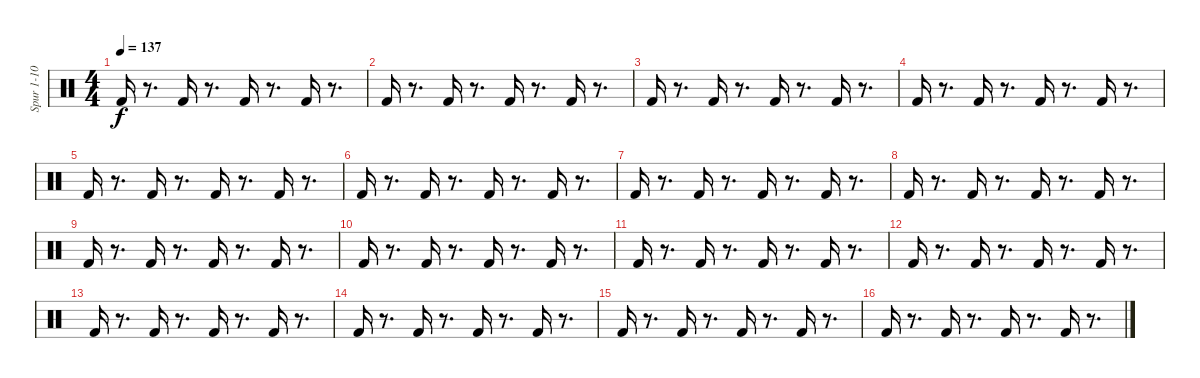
\track ("Spur 1-10" "Spur 1-10") {instrument percussion}
\staff {score}
\articulation defaults
\ts (4 4)
\tempo 137
\clef neutral
\ks c "Kick (hit) 2".16{dy f}
r.8{d} "Kick (hit) 2".16 r.8{d} "Kick (hit) 2".16 r.8{d} "Kick (hit) 2".16 r.8{d} |
"Kick (hit) 2".16 r.8{d} "Kick (hit) 2".16 r.8{d} "Kick (hit) 2".16 r.8{d} "Kick (hit) 2".16 r.8{d} |
"Kick (hit) 2".16 r.8{d} "Kick (hit) 2".16 r.8{d} "Kick (hit) 2".16 r.8{d} "Kick (hit) 2".16 r.8{d} |
"Kick (hit) 2".16 r.8{d} "Kick (hit) 2".16 r.8{d} "Kick (hit) 2".16 r.8{d} "Kick (hit) 2".16 r.8{d} |
"Kick (hit) 2".16 r.8{d} "Kick (hit) 2".16 r.8{d} "Kick (hit) 2".16 r.8{d} "Kick (hit) 2".16 r.8{d} |
"Kick (hit) 2".16 r.8{d} "Kick (hit) 2".16 r.8{d} "Kick (hit) 2".16 r.8{d} "Kick (hit) 2".16 r.8{d} |
"Kick (hit) 2".16 r.8{d} "Kick (hit) 2".16 r.8{d} "Kick (hit) 2".16 r.8{d} "Kick (hit) 2".16 r.8{d} |
"Kick (hit) 2".16 r.8{d} "Kick (hit) 2".16 r.8{d} "Kick (hit) 2".16 r.8{d} "Kick (hit) 2".16 r.8{d} |
"Kick (hit) 2".16 r.8{d} "Kick (hit) 2".16 r.8{d} "Kick (hit) 2".16 r.8{d} "Kick (hit) 2".16 r.8{d} |
"Kick (hit) 2".16 r.8{d} "Kick (hit) 2".16 r.8{d} "Kick (hit) 2".16 r.8{d} "Kick (hit) 2".16 r.8{d} |
"Kick (hit) 2".16 r.8{d} "Kick (hit) 2".16 r.8{d} "Kick (hit) 2".16 r.8{d} "Kick (hit) 2".16 r.8{d} |
"Kick (hit) 2".16 r.8{d} "Kick (hit) 2".16 r.8{d} "Kick (hit) 2".16 r.8{d} "Kick (hit) 2".16 r.8{d} |
"Kick (hit) 2".16 r.8{d} "Kick (hit) 2".16 r.8{d} "Kick (hit) 2".16 r.8{d} "Kick (hit) 2".16 r.8{d} |
"Kick (hit) 2".16 r.8{d} "Kick (hit) 2".16 r.8{d} "Kick (hit) 2".16 r.8{d} "Kick (hit) 2".16 r.8{d} |
"Kick (hit) 2".16 r.8{d} "Kick (hit) 2".16 r.8{d} "Kick (hit) 2".16 r.8{d} "Kick (hit) 2".16 r.8{d} |
"Kick (hit) 2".16 r.8{d} "Kick (hit) 2".16 r.8{d} "Kick (hit) 2".16 r.8{d} "Kick (hit) 2".16 r.8{d}
